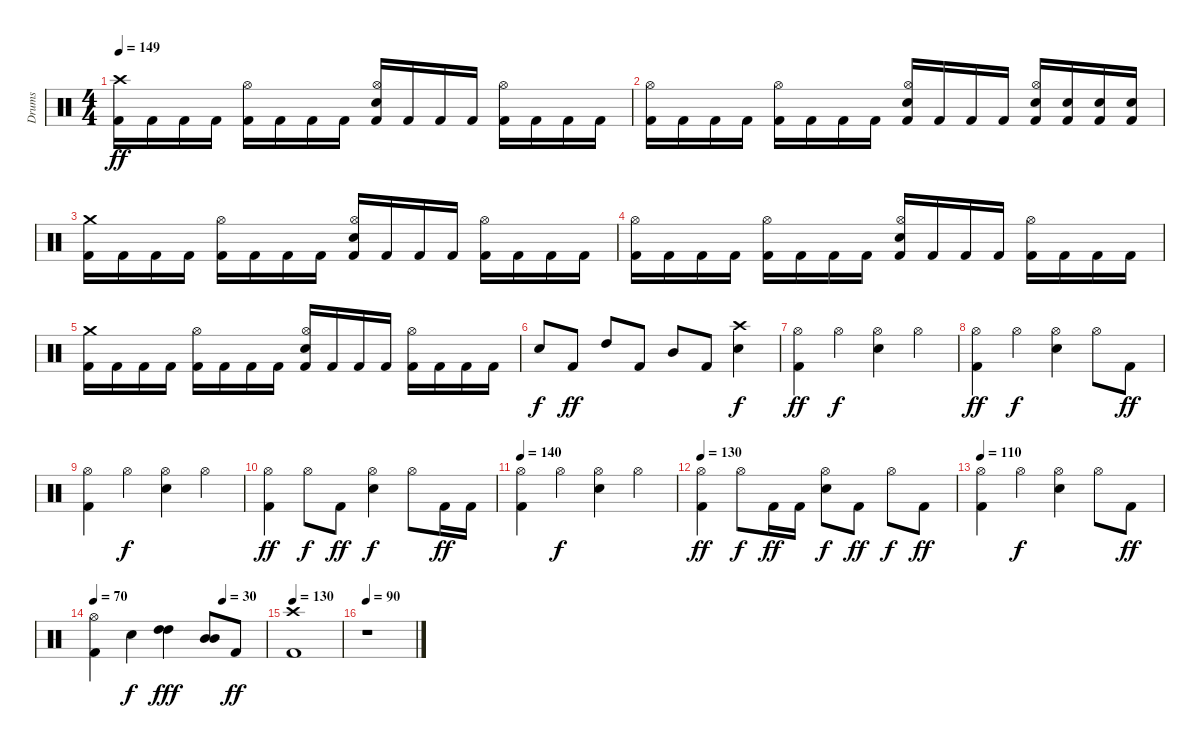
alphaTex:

\track ("Drums" "Drums") {instrument percussion}
\staff {score}
\articulation defaults
\ts (4 4)
\tempo 149
\clef neutral
\ks c
("Crash high (hit)" "Kick (hit) 2").16{dy ff} "Kick (hit) 2".16 "Kick (hit) 2".16 "Kick (hit) 2".16 ("Kick (hit) 2" "Hi-Hat (open)").16 "Kick (hit) 2".16 "Kick (hit) 2".16 "Kick (hit) 2".16 ("Snare (hit) 2" "Kick (hit) 2" "Hi-Hat (open)").16 "Kick (hit) 2".16 "Kick (hit) 2".16 "Kick (hit) 2".16 ("Kick (hit) 2" "Hi-Hat (open)").16 "Kick (hit) 2".16 "Kick (hit) 2".16 "Kick (hit) 2".16 |
("Kick (hit) 2" "Hi-Hat (open)").16 "Kick (hit) 2".16 "Kick (hit) 2".16 "Kick (hit) 2".16 ("Kick (hit) 2" "Hi-Hat (open)").16 "Kick (hit) 2".16 "Kick (hit) 2".16 "Kick (hit) 2".16 ("Snare (hit) 2" "Kick (hit) 2" "Hi-Hat (open)").16 "Kick (hit) 2".16 "Kick (hit) 2".16 "Kick (hit) 2".16 ("Snare (hit) 2" "Kick (hit) 2" "Hi-Hat (open)").16 ("Snare (hit) 2" "Kick (hit) 2").16 ("Snare (hit) 2" "Kick (hit) 2").16 ("Snare (hit) 2" "Kick (hit) 2").16 |
("Crash medium (hit)" "Kick (hit) 2").16 "Kick (hit) 2".16 "Kick (hit) 2".16 "Kick (hit) 2".16 ("Kick (hit) 2" "Hi-Hat (open)").16 "Kick (hit) 2".16 "Kick (hit) 2".16 "Kick (hit) 2".16 ("Snare (hit) 2" "Kick (hit) 2" "Hi-Hat (open)").16 "Kick (hit) 2".16 "Kick (hit) 2".16 "Kick (hit) 2".16 ("Kick (hit) 2" "Hi-Hat (open)").16 "Kick (hit) 2".16 "Kick (hit) 2".16 "Kick (hit) 2".16 |
("Kick (hit) 2" "Hi-Hat (open)").16 "Kick (hit) 2".16 "Kick (hit) 2".16 "Kick (hit) 2".16 ("Kick (hit) 2" "Hi-Hat (open)").16 "Kick (hit) 2".16 "Kick (hit) 2".16 "Kick (hit) 2".16 ("Snare (hit) 2" "Kick (hit) 2" "Hi-Hat (open)").16 "Kick (hit) 2".16 "Kick (hit) 2".16 "Kick (hit) 2".16 ("Kick (hit) 2" "Hi-Hat (open)").16 "Kick (hit) 2".16 "Kick (hit) 2".16 "Kick (hit) 2".16 |
("Crash medium (hit)" "Kick (hit) 2").16 "Kick (hit) 2".16 "Kick (hit) 2".16 "Kick (hit) 2".16 ("Kick (hit) 2" "Hi-Hat (open)").16 "Kick (hit) 2".16 "Kick (hit) 2".16 "Kick (hit) 2".16 ("Snare (hit) 2" "Kick (hit) 2" "Hi-Hat (open)").16 "Kick (hit) 2".16 "Kick (hit) 2".16 "Kick (hit) 2".16 ("Kick (hit) 2" "Hi-Hat (open)").16 "Kick (hit) 2".16 "Kick (hit) 2".16 "Kick (hit) 2".16 |
"Snare (hit) 2".8{dy f} "Kick (hit) 2".8{dy ff} "High Tom (hit)".8 "Kick (hit) 2".8 "Mid Tom (hit)".8 "Kick (hit) 2".8 ("Crash high (hit)" "Snare (hit) 2").4{dy f} |
("Kick (hit) 2" "Hi-Hat (open)").4{dy ff} "Hi-Hat (open)".4{dy f} ("Snare (hit) 2" "Hi-Hat (open)").4 "Hi-Hat (open)".4 |
("Kick (hit) 2" "Hi-Hat (open)").4{dy ff} "Hi-Hat (open)".4{dy f} ("Snare (hit) 2" "Hi-Hat (open)").4 "Hi-Hat (open)".8 "Kick (hit) 2".8{dy ff} |
("Kick (hit) 2" "Hi-Hat (open)").4 "Hi-Hat (open)".4{dy f} ("Snare (hit) 2" "Hi-Hat (open)").4 "Hi-Hat (open)".4 |
("Kick (hit) 2" "Hi-Hat (open)").4{dy ff} "Hi-Hat (open)".8{dy f} "Kick (hit) 2".8{dy ff} ("Snare (hit) 2" "Hi-Hat (open)").4{dy f} "Hi-Hat (open)".8 "Kick (hit) 2".16{dy ff} "Kick (hit) 2".16 |
\tempo 140
("Kick (hit) 2" "Hi-Hat (open)").4 "Hi-Hat (open)".4{dy f} ("Snare (hit) 2" "Hi-Hat (open)").4 "Hi-Hat (open)".4 |
\tempo 130
("Kick (hit) 2" "Hi-Hat (open)").4{dy ff} "Hi-Hat (open)".8{dy f} "Kick (hit) 2".16{dy ff} "Kick (hit) 2".16 ("Snare (hit) 2" "Hi-Hat (open)").8{dy f} "Kick (hit) 2".8{dy ff} "Hi-Hat (open)".8{dy f} "Kick (hit) 2".8{dy ff} |
\tempo 110
("Kick (hit) 2" "Hi-Hat (open)").4 "Hi-Hat (open)".4{dy f} ("Snare (hit) 2" "Hi-Hat (open)").4 "Hi-Hat (open)".8 "Kick (hit) 2".8{dy ff} |
\tempo 70
\tempo (30 0.75)
("Kick (hit) 2" "Hi-Hat (open)").4 "Snare (hit) 2".4{dy f} ("High Tom (hit)" "High Tom (hit)").4{dy fff} ("Mid Tom (hit)" "Mid Tom (hit)").8 "Kick (hit) 2".8{dy ff} |
\tempo 130
("Crash high (hit)" "Kick (hit) 2").1 |
\tempo 90
r.1
